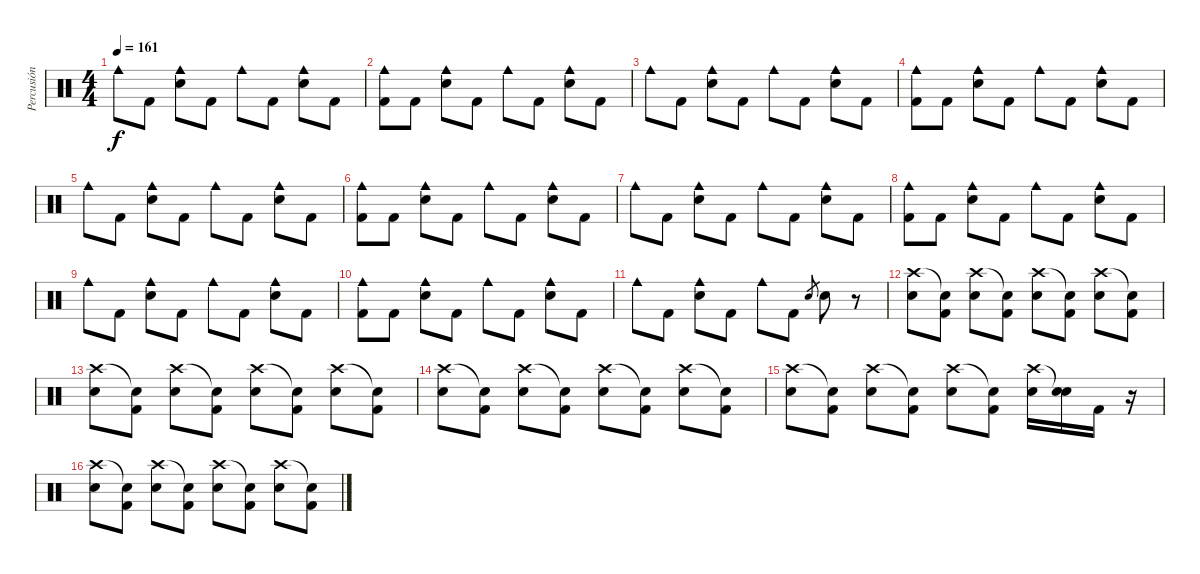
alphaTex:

\track ("Percusión" "Percusión") {instrument percussion}
\staff {score}
\articulation defaults
\ts (4 4)
\tempo 161
\clef neutral
\ks c "Cowbell medium (hit)".8{dy f} "Kick (hit) 2".8
("Cowbell medium (hit)" "Snare (hit) 2").8 "Kick (hit) 2".8 "Cowbell medium (hit)".8 "Kick (hit) 2".8 ("Cowbell medium (hit)" "Snare (hit) 2").8 "Kick (hit) 2".8 |
("Cowbell medium (hit)" "Kick (hit) 2").8 "Kick (hit) 2".8 ("Cowbell medium (hit)" "Snare (hit) 2").8 "Kick (hit) 2".8 "Cowbell medium (hit)".8 "Kick (hit) 2".8 ("Cowbell medium (hit)" "Snare (hit) 2").8 "Kick (hit) 2".8 |
"Cowbell medium (hit)".8 "Kick (hit) 2".8 ("Cowbell medium (hit)" "Snare (hit) 2").8 "Kick (hit) 2".8 "Cowbell medium (hit)".8 "Kick (hit) 2".8 ("Cowbell medium (hit)" "Snare (hit) 2").8 "Kick (hit) 2".8 |
("Cowbell medium (hit)" "Kick (hit) 2").8 "Kick (hit) 2".8 ("Cowbell medium (hit)" "Snare (hit) 2").8 "Kick (hit) 2".8 "Cowbell medium (hit)".8 "Kick (hit) 2".8 ("Cowbell medium (hit)" "Snare (hit) 2").8 "Kick (hit) 2".8 |
"Cowbell medium (hit)".8 "Kick (hit) 2".8 ("Cowbell medium (hit)" "Snare (hit) 2").8 "Kick (hit) 2".8 "Cowbell medium (hit)".8 "Kick (hit) 2".8 ("Cowbell medium (hit)" "Snare (hit) 2").8 "Kick (hit) 2".8 |
("Cowbell medium (hit)" "Kick (hit) 2").8 "Kick (hit) 2".8 ("Cowbell medium (hit)" "Snare (hit) 2").8 "Kick (hit) 2".8 "Cowbell medium (hit)".8 "Kick (hit) 2".8 ("Cowbell medium (hit)" "Snare (hit) 2").8 "Kick (hit) 2".8 |
"Cowbell medium (hit)".8 "Kick (hit) 2".8 ("Cowbell medium (hit)" "Snare (hit) 2").8 "Kick (hit) 2".8 "Cowbell medium (hit)".8 "Kick (hit) 2".8 ("Cowbell medium (hit)" "Snare (hit) 2").8 "Kick (hit) 2".8 |
("Cowbell medium (hit)" "Kick (hit) 2").8 "Kick (hit) 2".8 ("Cowbell medium (hit)" "Snare (hit) 2").8 "Kick (hit) 2".8 "Cowbell medium (hit)".8 "Kick (hit) 2".8 ("Cowbell medium (hit)" "Snare (hit) 2").8 "Kick (hit) 2".8 |
"Cowbell medium (hit)".8 "Kick (hit) 2".8 ("Cowbell medium (hit)" "Snare (hit) 2").8 "Kick (hit) 2".8 "Cowbell medium (hit)".8 "Kick (hit) 2".8 ("Cowbell medium (hit)" "Snare (hit) 2").8 "Kick (hit) 2".8 |
("Cowbell medium (hit)" "Kick (hit) 2").8 "Kick (hit) 2".8 ("Cowbell medium (hit)" "Snare (hit) 2").8 "Kick (hit) 2".8 "Cowbell medium (hit)".8 "Kick (hit) 2".8 ("Cowbell medium (hit)" "Snare (hit) 2").8 "Kick (hit) 2".8 |
"Cowbell medium (hit)".8 "Kick (hit) 2".8 ("Cowbell medium (hit)" "Snare (hit) 2").8 "Kick (hit) 2".8 "Cowbell medium (hit)".8 "Kick (hit) 2".8 "Snare (hit) 2".8{gr} "Snare (hit) 2".8 r.8 |
("Crash high (hit)" "Snare (hit) 2").8 ("Snare (hit)"{t} "Kick (hit) 2").8 ("Crash high (hit)" "Snare (hit) 2").8 ("Snare (hit)"{t} "Kick (hit) 2").8 ("Crash high (hit)" "Snare (hit) 2").8 ("Snare (hit)"{t} "Kick (hit) 2").8 ("Crash high (hit)" "Snare (hit) 2").8 ("Snare (hit)"{t} "Kick (hit) 2").8 |
("Crash high (hit)" "Snare (hit) 2").8 ("Snare (hit)"{t} "Kick (hit) 2").8 ("Crash high (hit)" "Snare (hit) 2").8 ("Snare (hit)"{t} "Kick (hit) 2").8 ("Crash high (hit)" "Snare (hit) 2").8 ("Snare (hit)"{t} "Kick (hit) 2").8 ("Crash high (hit)" "Snare (hit) 2").8 ("Snare (hit)"{t} "Kick (hit) 2").8 |
("Crash high (hit)" "Snare (hit) 2").8 ("Snare (hit)"{t} "Kick (hit) 2").8 ("Crash high (hit)" "Snare (hit) 2").8 ("Snare (hit)"{t} "Kick (hit) 2").8 ("Crash high (hit)" "Snare (hit) 2").8 ("Snare (hit)"{t} "Kick (hit) 2").8 ("Crash high (hit)" "Snare (hit) 2").8 ("Snare (hit)"{t} "Kick (hit) 2").8 |
("Crash high (hit)" "Snare (hit) 2").8 ("Snare (hit)"{t} "Kick (hit) 2").8 ("Crash high (hit)" "Snare (hit) 2").8 ("Snare (hit)"{t} "Kick (hit) 2").8 ("Crash high (hit)" "Snare (hit) 2").8 ("Snare (hit)"{t} "Kick (hit) 2").8 ("Crash high (hit)" "Snare (hit) 2").16 ("Snare (hit)"{t} "Snare (hit) 2").16 "Kick (hit) 2".16 r.16 |
("Crash high (hit)" "Snare (hit) 2").8 ("Snare (hit)"{t} "Kick (hit) 2").8 ("Crash high (hit)" "Snare (hit) 2").8 ("Snare (hit)"{t} "Kick (hit) 2").8 ("Crash high (hit)" "Snare (hit) 2").8 ("Snare (hit)"{t} "Kick (hit) 2").8 ("Crash high (hit)" "Snare (hit) 2").8 ("Snare (hit)"{t} "Kick (hit) 2").8
